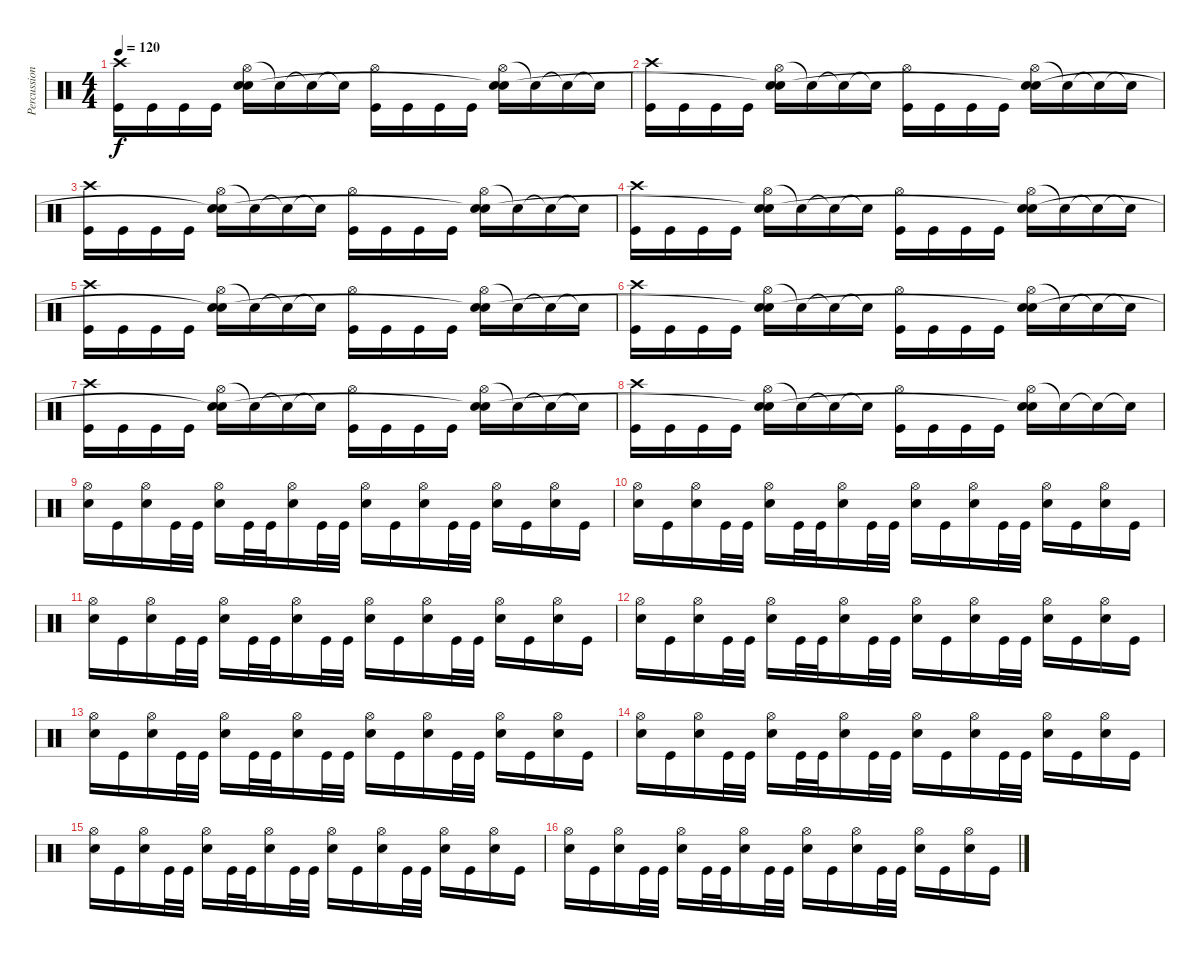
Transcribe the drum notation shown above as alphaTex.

\track ("Percussion" "Percussion") {instrument percussion}
\staff {score}
\articulation defaults
\ts (4 4)
\tempo 120
\clef neutral
\ks c
("Crash high (hit)" "Kick (hit)").16{dy f} "Kick (hit)".16 "Kick (hit)".16 "Kick (hit)".16 ("Hi-Hat (open)" "Electric Snare (hit)" "Snare (hit)"{t}).16 "Snare (hit)"{t}.16 "Snare (hit)"{t}.16 "Snare (hit)"{t}.16 ("Hi-Hat (open)" "Kick (hit)").16 "Kick (hit)".16 "Kick (hit)".16 "Kick (hit)".16 ("Hi-Hat (open)" "Electric Snare (hit)" "Snare (hit)"{t}).16 "Snare (hit)"{t}.16 "Snare (hit)"{t}.16 "Snare (hit)"{t}.16 |
("Crash high (hit)" "Kick (hit)").16 "Kick (hit)".16 "Kick (hit)".16 "Kick (hit)".16 ("Hi-Hat (open)" "Electric Snare (hit)" "Snare (hit)"{t}).16 "Snare (hit)"{t}.16 "Snare (hit)"{t}.16 "Snare (hit)"{t}.16 ("Hi-Hat (open)" "Kick (hit)").16 "Kick (hit)".16 "Kick (hit)".16 "Kick (hit)".16 ("Hi-Hat (open)" "Electric Snare (hit)" "Snare (hit)"{t}).16 "Snare (hit)"{t}.16 "Snare (hit)"{t}.16 "Snare (hit)"{t}.16 |
("Crash high (hit)" "Kick (hit)").16 "Kick (hit)".16 "Kick (hit)".16 "Kick (hit)".16 ("Hi-Hat (open)" "Electric Snare (hit)" "Snare (hit)"{t}).16 "Snare (hit)"{t}.16 "Snare (hit)"{t}.16 "Snare (hit)"{t}.16 ("Hi-Hat (open)" "Kick (hit)").16 "Kick (hit)".16 "Kick (hit)".16 "Kick (hit)".16 ("Hi-Hat (open)" "Electric Snare (hit)" "Snare (hit)"{t}).16 "Snare (hit)"{t}.16 "Snare (hit)"{t}.16 "Snare (hit)"{t}.16 |
("Crash high (hit)" "Kick (hit)").16 "Kick (hit)".16 "Kick (hit)".16 "Kick (hit)".16 ("Hi-Hat (open)" "Electric Snare (hit)" "Snare (hit)"{t}).16 "Snare (hit)"{t}.16 "Snare (hit)"{t}.16 "Snare (hit)"{t}.16 ("Hi-Hat (open)" "Kick (hit)").16 "Kick (hit)".16 "Kick (hit)".16 "Kick (hit)".16 ("Hi-Hat (open)" "Electric Snare (hit)" "Snare (hit)"{t}).16 "Snare (hit)"{t}.16 "Snare (hit)"{t}.16 "Snare (hit)"{t}.16 |
("Crash high (hit)" "Kick (hit)").16 "Kick (hit)".16 "Kick (hit)".16 "Kick (hit)".16 ("Hi-Hat (open)" "Electric Snare (hit)" "Snare (hit)"{t}).16 "Snare (hit)"{t}.16 "Snare (hit)"{t}.16 "Snare (hit)"{t}.16 ("Hi-Hat (open)" "Kick (hit)").16 "Kick (hit)".16 "Kick (hit)".16 "Kick (hit)".16 ("Hi-Hat (open)" "Electric Snare (hit)" "Snare (hit)"{t}).16 "Snare (hit)"{t}.16 "Snare (hit)"{t}.16 "Snare (hit)"{t}.16 |
("Crash high (hit)" "Kick (hit)").16 "Kick (hit)".16 "Kick (hit)".16 "Kick (hit)".16 ("Hi-Hat (open)" "Electric Snare (hit)" "Snare (hit)"{t}).16 "Snare (hit)"{t}.16 "Snare (hit)"{t}.16 "Snare (hit)"{t}.16 ("Hi-Hat (open)" "Kick (hit)").16 "Kick (hit)".16 "Kick (hit)".16 "Kick (hit)".16 ("Hi-Hat (open)" "Electric Snare (hit)" "Snare (hit)"{t}).16 "Snare (hit)"{t}.16 "Snare (hit)"{t}.16 "Snare (hit)"{t}.16 |
("Crash high (hit)" "Kick (hit)").16 "Kick (hit)".16 "Kick (hit)".16 "Kick (hit)".16 ("Hi-Hat (open)" "Electric Snare (hit)" "Snare (hit)"{t}).16 "Snare (hit)"{t}.16 "Snare (hit)"{t}.16 "Snare (hit)"{t}.16 ("Hi-Hat (open)" "Kick (hit)").16 "Kick (hit)".16 "Kick (hit)".16 "Kick (hit)".16 ("Hi-Hat (open)" "Electric Snare (hit)" "Snare (hit)"{t}).16 "Snare (hit)"{t}.16 "Snare (hit)"{t}.16 "Snare (hit)"{t}.16 |
("Crash high (hit)" "Kick (hit)").16 "Kick (hit)".16 "Kick (hit)".16 "Kick (hit)".16 ("Hi-Hat (open)" "Electric Snare (hit)" "Snare (hit)"{t}).16 "Snare (hit)"{t}.16 "Snare (hit)"{t}.16 "Snare (hit)"{t}.16 ("Hi-Hat (open)" "Kick (hit)").16 "Kick (hit)".16 "Kick (hit)".16 "Kick (hit)".16 ("Hi-Hat (open)" "Electric Snare (hit)" "Snare (hit)"{t}).16 "Snare (hit)"{t}.16 "Snare (hit)"{t}.16 "Snare (hit)"{t}.16 |
("Hi-Hat (open)" "Electric Snare (hit)").16 "Kick (hit)".16 ("Hi-Hat (open)" "Electric Snare (hit)").16 "Kick (hit)".32 "Kick (hit)".32 ("Hi-Hat (open)" "Electric Snare (hit)").16 "Kick (hit)".32 "Kick (hit)".32 ("Hi-Hat (open)" "Electric Snare (hit)").16 "Kick (hit)".32 "Kick (hit)".32 ("Hi-Hat (open)" "Electric Snare (hit)").16 "Kick (hit)".16 ("Hi-Hat (open)" "Electric Snare (hit)").16 "Kick (hit)".32 "Kick (hit)".32 ("Hi-Hat (open)" "Electric Snare (hit)").16 "Kick (hit)".16 ("Hi-Hat (open)" "Electric Snare (hit)").16 "Kick (hit)".16 |
("Hi-Hat (open)" "Electric Snare (hit)").16 "Kick (hit)".16 ("Hi-Hat (open)" "Electric Snare (hit)").16 "Kick (hit)".32 "Kick (hit)".32 ("Hi-Hat (open)" "Electric Snare (hit)").16 "Kick (hit)".32 "Kick (hit)".32 ("Hi-Hat (open)" "Electric Snare (hit)").16 "Kick (hit)".32 "Kick (hit)".32 ("Hi-Hat (open)" "Electric Snare (hit)").16 "Kick (hit)".16 ("Hi-Hat (open)" "Electric Snare (hit)").16 "Kick (hit)".32 "Kick (hit)".32 ("Hi-Hat (open)" "Electric Snare (hit)").16 "Kick (hit)".16 ("Hi-Hat (open)" "Electric Snare (hit)").16 "Kick (hit)".16 |
("Hi-Hat (open)" "Electric Snare (hit)").16 "Kick (hit)".16 ("Hi-Hat (open)" "Electric Snare (hit)").16 "Kick (hit)".32 "Kick (hit)".32 ("Hi-Hat (open)" "Electric Snare (hit)").16 "Kick (hit)".32 "Kick (hit)".32 ("Hi-Hat (open)" "Electric Snare (hit)").16 "Kick (hit)".32 "Kick (hit)".32 ("Hi-Hat (open)" "Electric Snare (hit)").16 "Kick (hit)".16 ("Hi-Hat (open)" "Electric Snare (hit)").16 "Kick (hit)".32 "Kick (hit)".32 ("Hi-Hat (open)" "Electric Snare (hit)").16 "Kick (hit)".16 ("Hi-Hat (open)" "Electric Snare (hit)").16 "Kick (hit)".16 |
("Hi-Hat (open)" "Electric Snare (hit)").16 "Kick (hit)".16 ("Hi-Hat (open)" "Electric Snare (hit)").16 "Kick (hit)".32 "Kick (hit)".32 ("Hi-Hat (open)" "Electric Snare (hit)").16 "Kick (hit)".32 "Kick (hit)".32 ("Hi-Hat (open)" "Electric Snare (hit)").16 "Kick (hit)".32 "Kick (hit)".32 ("Hi-Hat (open)" "Electric Snare (hit)").16 "Kick (hit)".16 ("Hi-Hat (open)" "Electric Snare (hit)").16 "Kick (hit)".32 "Kick (hit)".32 ("Hi-Hat (open)" "Electric Snare (hit)").16 "Kick (hit)".16 ("Hi-Hat (open)" "Electric Snare (hit)").16 "Kick (hit)".16 |
("Hi-Hat (open)" "Electric Snare (hit)").16 "Kick (hit)".16 ("Hi-Hat (open)" "Electric Snare (hit)").16 "Kick (hit)".32 "Kick (hit)".32 ("Hi-Hat (open)" "Electric Snare (hit)").16 "Kick (hit)".32 "Kick (hit)".32 ("Hi-Hat (open)" "Electric Snare (hit)").16 "Kick (hit)".32 "Kick (hit)".32 ("Hi-Hat (open)" "Electric Snare (hit)").16 "Kick (hit)".16 ("Hi-Hat (open)" "Electric Snare (hit)").16 "Kick (hit)".32 "Kick (hit)".32 ("Hi-Hat (open)" "Electric Snare (hit)").16 "Kick (hit)".16 ("Hi-Hat (open)" "Electric Snare (hit)").16 "Kick (hit)".16 |
("Hi-Hat (open)" "Electric Snare (hit)").16 "Kick (hit)".16 ("Hi-Hat (open)" "Electric Snare (hit)").16 "Kick (hit)".32 "Kick (hit)".32 ("Hi-Hat (open)" "Electric Snare (hit)").16 "Kick (hit)".32 "Kick (hit)".32 ("Hi-Hat (open)" "Electric Snare (hit)").16 "Kick (hit)".32 "Kick (hit)".32 ("Hi-Hat (open)" "Electric Snare (hit)").16 "Kick (hit)".16 ("Hi-Hat (open)" "Electric Snare (hit)").16 "Kick (hit)".32 "Kick (hit)".32 ("Hi-Hat (open)" "Electric Snare (hit)").16 "Kick (hit)".16 ("Hi-Hat (open)" "Electric Snare (hit)").16 "Kick (hit)".16 |
("Hi-Hat (open)" "Electric Snare (hit)").16 "Kick (hit)".16 ("Hi-Hat (open)" "Electric Snare (hit)").16 "Kick (hit)".32 "Kick (hit)".32 ("Hi-Hat (open)" "Electric Snare (hit)").16 "Kick (hit)".32 "Kick (hit)".32 ("Hi-Hat (open)" "Electric Snare (hit)").16 "Kick (hit)".32 "Kick (hit)".32 ("Hi-Hat (open)" "Electric Snare (hit)").16 "Kick (hit)".16 ("Hi-Hat (open)" "Electric Snare (hit)").16 "Kick (hit)".32 "Kick (hit)".32 ("Hi-Hat (open)" "Electric Snare (hit)").16 "Kick (hit)".16 ("Hi-Hat (open)" "Electric Snare (hit)").16 "Kick (hit)".16 |
("Hi-Hat (open)" "Electric Snare (hit)").16 "Kick (hit)".16 ("Hi-Hat (open)" "Electric Snare (hit)").16 "Kick (hit)".32 "Kick (hit)".32 ("Hi-Hat (open)" "Electric Snare (hit)").16 "Kick (hit)".32 "Kick (hit)".32 ("Hi-Hat (open)" "Electric Snare (hit)").16 "Kick (hit)".32 "Kick (hit)".32 ("Hi-Hat (open)" "Electric Snare (hit)").16 "Kick (hit)".16 ("Hi-Hat (open)" "Electric Snare (hit)").16 "Kick (hit)".32 "Kick (hit)".32 ("Hi-Hat (open)" "Electric Snare (hit)").16 "Kick (hit)".16 ("Hi-Hat (open)" "Electric Snare (hit)").16 "Kick (hit)".16
